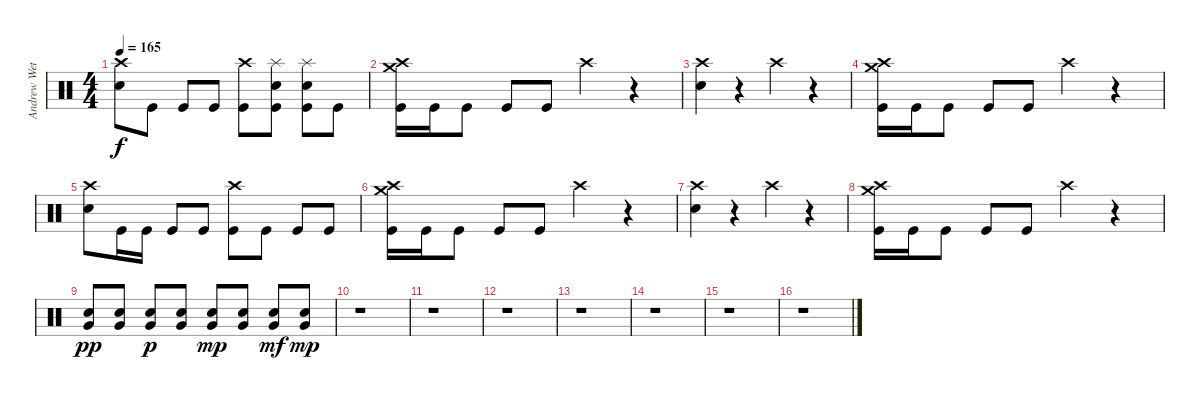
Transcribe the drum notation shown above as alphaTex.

\track ("Andrew Wetzel" "Andrew Wet") {instrument percussion}
\staff {score}
\articulation defaults
\ts (4 4)
\tempo 165
\clef neutral
\ks c
("Crash high (hit)" "Snare (hit) 2").8{dy f} "Kick (hit)".8 "Kick (hit)".8 "Kick (hit)".8 ("Crash high (hit)" "Kick (hit)").8 ("Splash (hit)" "Snare (hit) 2" "Kick (hit)").8 ("Splash (hit)" "Snare (hit) 2" "Kick (hit)").8 "Kick (hit)".8 |
("Crash high (hit)" "Crash medium (hit)" "Kick (hit)").16 "Kick (hit)".16 "Kick (hit)".8 "Kick (hit)".8 "Kick (hit)".8 "Crash high (hit)".4 r.4 |
("Crash high (hit)" "Snare (hit) 2").4 r.4 "Crash high (hit)".4 r.4 |
("Crash high (hit)" "Crash medium (hit)" "Kick (hit)").16 "Kick (hit)".16 "Kick (hit)".8 "Kick (hit)".8 "Kick (hit)".8 "Crash high (hit)".4 r.4 |
("Crash high (hit)" "Snare (hit) 2").8 "Kick (hit)".16 "Kick (hit)".16 "Kick (hit)".8 "Kick (hit)".8 ("Crash high (hit)" "Kick (hit)").8 "Kick (hit)".8 "Kick (hit)".8 "Kick (hit)".8 |
("Crash high (hit)" "Crash medium (hit)" "Kick (hit)").16 "Kick (hit)".16 "Kick (hit)".8 "Kick (hit)".8 "Kick (hit)".8 "Crash high (hit)".4 r.4 |
("Crash high (hit)" "Snare (hit) 2").4 r.4 "Crash high (hit)".4 r.4 |
("Crash high (hit)" "Crash medium (hit)" "Kick (hit)").16 "Kick (hit)".16 "Kick (hit)".8 "Kick (hit)".8 "Kick (hit)".8 "Crash high (hit)".4 r.4 |
("Very Low Tom (hit)" "Snare (hit) 2").8{dy pp} ("Very Low Tom (hit)" "Snare (hit) 2").8 ("Very Low Tom (hit)" "Snare (hit) 2").8{dy p} ("Very Low Tom (hit)" "Snare (hit) 2").8 ("Very Low Tom (hit)" "Snare (hit) 2").8{dy mp} ("Very Low Tom (hit)" "Snare (hit) 2").8 ("Very Low Tom (hit)" "Snare (hit) 2").8{dy mf} ("Very Low Tom (hit)" "Snare (hit) 2").8{dy mp} |
r.1 |
r.1 |
r.1 |
r.1 |
r.1 |
r.1 |
r.1
